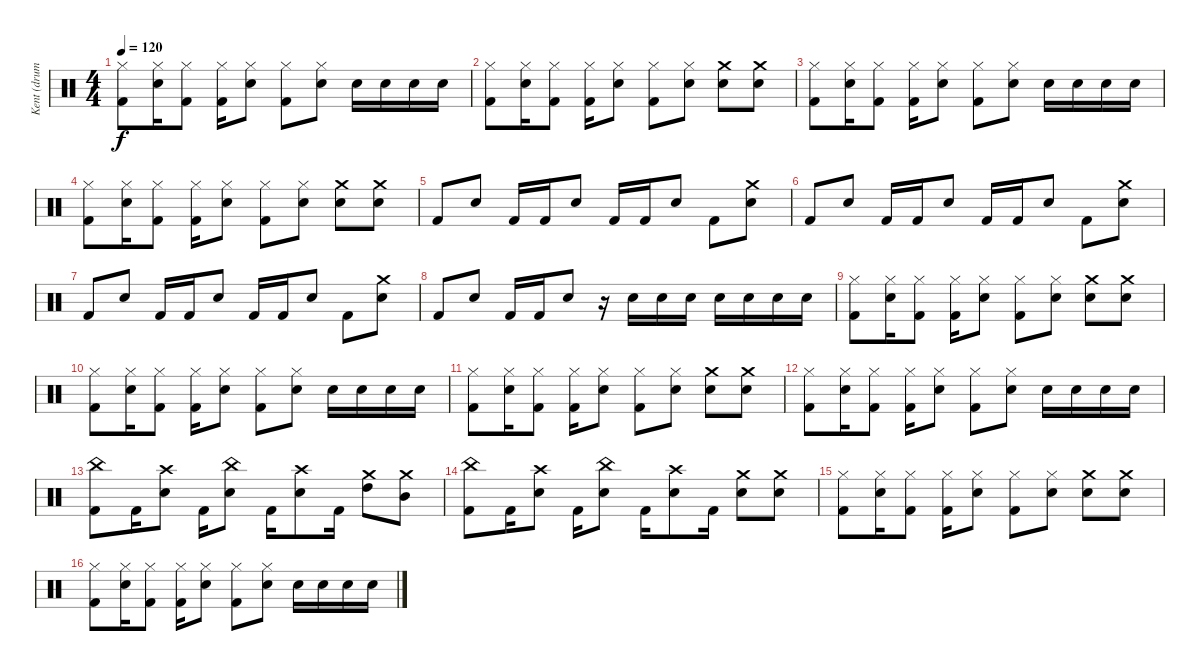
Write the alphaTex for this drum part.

\track ("Kent (drums)" "Kent (drum") {instrument percussion}
\staff {score}
\articulation defaults
\ts (4 4)
\tempo 120
\clef neutral
\ks c
("Hi-Hat (closed)" "Kick (hit) 2").8{dy f} ("Hi-Hat (closed)" "Snare (hit) 2").16 ("Hi-Hat (closed)" "Kick (hit) 2").8 ("Hi-Hat (closed)" "Kick (hit) 2").16 ("Hi-Hat (closed)" "Snare (hit) 2").8 ("Hi-Hat (closed)" "Kick (hit) 2").8 ("Hi-Hat (closed)" "Snare (hit) 2").8 "Snare (hit) 2".16 "Snare (hit) 2".16 "Snare (hit) 2".16 "Snare (hit) 2".16 |
("Hi-Hat (closed)" "Kick (hit) 2").8 ("Hi-Hat (closed)" "Snare (hit) 2").16 ("Hi-Hat (closed)" "Kick (hit) 2").8 ("Hi-Hat (closed)" "Kick (hit) 2").16 ("Hi-Hat (closed)" "Snare (hit) 2").8 ("Hi-Hat (closed)" "Kick (hit) 2").8 ("Hi-Hat (closed)" "Snare (hit) 2").8 ("Crash medium (hit)" "Snare (hit) 2").8 ("Crash medium (hit)" "Snare (hit) 2").8 |
("Hi-Hat (closed)" "Kick (hit) 2").8 ("Hi-Hat (closed)" "Snare (hit) 2").16 ("Hi-Hat (closed)" "Kick (hit) 2").8 ("Hi-Hat (closed)" "Kick (hit) 2").16 ("Hi-Hat (closed)" "Snare (hit) 2").8 ("Hi-Hat (closed)" "Kick (hit) 2").8 ("Hi-Hat (closed)" "Snare (hit) 2").8 "Snare (hit) 2".16 "Snare (hit) 2".16 "Snare (hit) 2".16 "Snare (hit) 2".16 |
("Hi-Hat (closed)" "Kick (hit) 2").8 ("Hi-Hat (closed)" "Snare (hit) 2").16 ("Hi-Hat (closed)" "Kick (hit) 2").8 ("Hi-Hat (closed)" "Kick (hit) 2").16 ("Hi-Hat (closed)" "Snare (hit) 2").8 ("Hi-Hat (closed)" "Kick (hit) 2").8 ("Hi-Hat (closed)" "Snare (hit) 2").8 ("Crash medium (hit)" "Snare (hit) 2").8 ("Crash medium (hit)" "Snare (hit) 2").8 |
"Kick (hit) 2".8 "Snare (hit) 2".8 "Kick (hit) 2".16 "Kick (hit) 2".16 "Snare (hit) 2".8 "Kick (hit) 2".16 "Kick (hit) 2".16 "Snare (hit) 2".8 "Kick (hit) 2".8 ("Crash medium (hit)" "Snare (hit) 2").8 |
"Kick (hit) 2".8 "Snare (hit) 2".8 "Kick (hit) 2".16 "Kick (hit) 2".16 "Snare (hit) 2".8 "Kick (hit) 2".16 "Kick (hit) 2".16 "Snare (hit) 2".8 "Kick (hit) 2".8 ("Crash medium (hit)" "Snare (hit) 2").8 |
"Kick (hit) 2".8 "Snare (hit) 2".8 "Kick (hit) 2".16 "Kick (hit) 2".16 "Snare (hit) 2".8 "Kick (hit) 2".16 "Kick (hit) 2".16 "Snare (hit) 2".8 "Kick (hit) 2".8 ("Crash medium (hit)" "Snare (hit) 2").8 |
"Kick (hit) 2".8 "Snare (hit) 2".8 "Kick (hit) 2".16 "Kick (hit) 2".16 "Snare (hit) 2".8 r.16 "Snare (hit) 2".16 "Snare (hit) 2".16 "Snare (hit) 2".16 "Snare (hit) 2".16 "Snare (hit) 2".16 "Snare (hit) 2".16 "Snare (hit) 2".16 |
("Hi-Hat (closed)" "Kick (hit) 2").8 ("Hi-Hat (closed)" "Snare (hit) 2").16 ("Hi-Hat (closed)" "Kick (hit) 2").8 ("Hi-Hat (closed)" "Kick (hit) 2").16 ("Hi-Hat (closed)" "Snare (hit) 2").8 ("Hi-Hat (closed)" "Kick (hit) 2").8 ("Hi-Hat (closed)" "Snare (hit) 2").8 ("Crash medium (hit)" "Snare (hit) 2").8 ("Crash medium (hit)" "Snare (hit) 2").8 |
("Hi-Hat (closed)" "Kick (hit) 2").8 ("Hi-Hat (closed)" "Snare (hit) 2").16 ("Hi-Hat (closed)" "Kick (hit) 2").8 ("Hi-Hat (closed)" "Kick (hit) 2").16 ("Hi-Hat (closed)" "Snare (hit) 2").8 ("Hi-Hat (closed)" "Kick (hit) 2").8 ("Hi-Hat (closed)" "Snare (hit) 2").8 "Snare (hit) 2".16 "Snare (hit) 2".16 "Snare (hit) 2".16 "Snare (hit) 2".16 |
("Hi-Hat (closed)" "Kick (hit) 2").8 ("Hi-Hat (closed)" "Snare (hit) 2").16 ("Hi-Hat (closed)" "Kick (hit) 2").8 ("Hi-Hat (closed)" "Kick (hit) 2").16 ("Hi-Hat (closed)" "Snare (hit) 2").8 ("Hi-Hat (closed)" "Kick (hit) 2").8 ("Hi-Hat (closed)" "Snare (hit) 2").8 ("Crash medium (hit)" "Snare (hit) 2").8 ("Crash medium (hit)" "Snare (hit) 2").8 |
("Hi-Hat (closed)" "Kick (hit) 2").8 ("Hi-Hat (closed)" "Snare (hit) 2").16 ("Hi-Hat (closed)" "Kick (hit) 2").8 ("Hi-Hat (closed)" "Kick (hit) 2").16 ("Hi-Hat (closed)" "Snare (hit) 2").8 ("Hi-Hat (closed)" "Kick (hit) 2").8 ("Hi-Hat (closed)" "Snare (hit) 2").8 "Snare (hit) 2".16 "Snare (hit) 2".16 "Snare (hit) 2".16 "Snare (hit) 2".16 |
("China (hit)" "Kick (hit) 2").8 "Kick (hit) 2".16 ("Crash high (hit)" "Snare (hit) 2").8 "Kick (hit) 2".16 ("China (hit)" "Snare (hit) 2").8 "Kick (hit) 2".16 ("Crash high (hit)" "Snare (hit) 2").8 "Kick (hit) 2".16 ("Crash medium (hit)" "High Tom (hit)").8 ("Crash medium (hit)" "Mid Tom (hit)").8 |
("China (hit)" "Kick (hit) 2").8 "Kick (hit) 2".16 ("Crash high (hit)" "Snare (hit) 2").8 "Kick (hit) 2".16 ("China (hit)" "Snare (hit) 2").8 "Kick (hit) 2".16 ("Crash high (hit)" "Snare (hit) 2").8 "Kick (hit) 2".16 ("Crash medium (hit)" "Snare (hit) 2").8 ("Crash medium (hit)" "Snare (hit) 2").8 |
("Hi-Hat (closed)" "Kick (hit) 2").8 ("Hi-Hat (closed)" "Snare (hit) 2").16 ("Hi-Hat (closed)" "Kick (hit) 2").8 ("Hi-Hat (closed)" "Kick (hit) 2").16 ("Hi-Hat (closed)" "Snare (hit) 2").8 ("Hi-Hat (closed)" "Kick (hit) 2").8 ("Hi-Hat (closed)" "Snare (hit) 2").8 ("Crash medium (hit)" "Snare (hit) 2").8 ("Crash medium (hit)" "Snare (hit) 2").8 |
("Hi-Hat (closed)" "Kick (hit) 2").8 ("Hi-Hat (closed)" "Snare (hit) 2").16 ("Hi-Hat (closed)" "Kick (hit) 2").8 ("Hi-Hat (closed)" "Kick (hit) 2").16 ("Hi-Hat (closed)" "Snare (hit) 2").8 ("Hi-Hat (closed)" "Kick (hit) 2").8 ("Hi-Hat (closed)" "Snare (hit) 2").8 "Snare (hit) 2".16 "Snare (hit) 2".16 "Snare (hit) 2".16 "Snare (hit) 2".16
